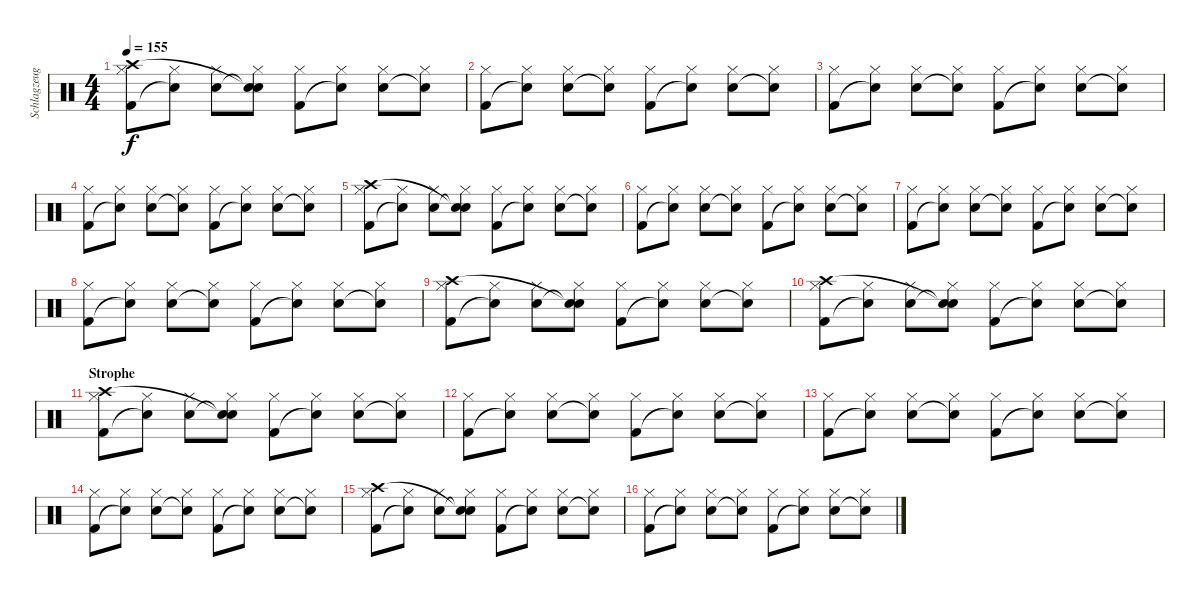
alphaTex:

\track ("Schlagzeug" "Schlagzeug") {instrument percussion}
\staff {score}
\articulation defaults
\ts (4 4)
\tempo 155
\clef neutral
\ks c
("Hi-Hat (closed)" "Kick (hit) 2" "Crash high (hit)").8{dy f} ("Hi-Hat (closed)" "Snare (hit) 2"{t}).8 ("Hi-Hat (closed)" "Snare (hit) 2").8 ("Hi-Hat (closed)" "Snare (hit)"{t} "Snare (hit)"{t}).8 ("Hi-Hat (closed)" "Kick (hit) 2").8 ("Hi-Hat (closed)" "Snare (hit)"{t}).8 ("Hi-Hat (closed)" "Snare (hit) 2").8 ("Hi-Hat (closed)" "Snare (hit)"{t}).8 |
("Hi-Hat (closed)" "Kick (hit) 2").8 ("Hi-Hat (closed)" "Snare (hit) 2"{t}).8 ("Hi-Hat (closed)" "Snare (hit) 2").8 ("Hi-Hat (closed)" "Snare (hit)"{t}).8 ("Hi-Hat (closed)" "Kick (hit) 2").8 ("Hi-Hat (closed)" "Snare (hit)"{t}).8 ("Hi-Hat (closed)" "Snare (hit) 2").8 ("Hi-Hat (closed)" "Snare (hit)"{t}).8 |
("Hi-Hat (closed)" "Kick (hit) 2").8 ("Hi-Hat (closed)" "Snare (hit) 2"{t}).8 ("Hi-Hat (closed)" "Snare (hit) 2").8 ("Hi-Hat (closed)" "Snare (hit)"{t}).8 ("Hi-Hat (closed)" "Kick (hit) 2").8 ("Hi-Hat (closed)" "Snare (hit)"{t}).8 ("Hi-Hat (closed)" "Snare (hit) 2").8 ("Hi-Hat (closed)" "Snare (hit)"{t}).8 |
("Hi-Hat (closed)" "Kick (hit) 2").8 ("Hi-Hat (closed)" "Snare (hit) 2"{t}).8 ("Hi-Hat (closed)" "Snare (hit) 2").8 ("Hi-Hat (closed)" "Snare (hit)"{t}).8 ("Hi-Hat (closed)" "Kick (hit) 2").8 ("Hi-Hat (closed)" "Snare (hit)"{t}).8 ("Hi-Hat (closed)" "Snare (hit) 2").8 ("Hi-Hat (closed)" "Snare (hit)"{t}).8 |
("Hi-Hat (closed)" "Kick (hit) 2" "Crash high (hit)").8 ("Hi-Hat (closed)" "Snare (hit) 2"{t}).8 ("Hi-Hat (closed)" "Snare (hit) 2").8 ("Hi-Hat (closed)" "Snare (hit)"{t} "Snare (hit)"{t}).8 ("Hi-Hat (closed)" "Kick (hit) 2").8 ("Hi-Hat (closed)" "Snare (hit)"{t}).8 ("Hi-Hat (closed)" "Snare (hit) 2").8 ("Hi-Hat (closed)" "Snare (hit)"{t}).8 |
("Hi-Hat (closed)" "Kick (hit) 2").8 ("Hi-Hat (closed)" "Snare (hit) 2"{t}).8 ("Hi-Hat (closed)" "Snare (hit) 2").8 ("Hi-Hat (closed)" "Snare (hit)"{t}).8 ("Hi-Hat (closed)" "Kick (hit) 2").8 ("Hi-Hat (closed)" "Snare (hit)"{t}).8 ("Hi-Hat (closed)" "Snare (hit) 2").8 ("Hi-Hat (closed)" "Snare (hit)"{t}).8 |
("Hi-Hat (closed)" "Kick (hit) 2").8 ("Hi-Hat (closed)" "Snare (hit) 2"{t}).8 ("Hi-Hat (closed)" "Snare (hit) 2").8 ("Hi-Hat (closed)" "Snare (hit)"{t}).8 ("Hi-Hat (closed)" "Kick (hit) 2").8 ("Hi-Hat (closed)" "Snare (hit)"{t}).8 ("Hi-Hat (closed)" "Snare (hit) 2").8 ("Hi-Hat (closed)" "Snare (hit)"{t}).8 |
("Hi-Hat (closed)" "Kick (hit) 2").8 ("Hi-Hat (closed)" "Snare (hit) 2"{t}).8 ("Hi-Hat (closed)" "Snare (hit) 2").8 ("Hi-Hat (closed)" "Snare (hit)"{t}).8 ("Hi-Hat (closed)" "Kick (hit) 2").8 ("Hi-Hat (closed)" "Snare (hit)"{t}).8 ("Hi-Hat (closed)" "Snare (hit) 2").8 ("Hi-Hat (closed)" "Snare (hit)"{t}).8 |
("Hi-Hat (closed)" "Kick (hit) 2" "Crash high (hit)").8 ("Hi-Hat (closed)" "Snare (hit) 2"{t}).8 ("Hi-Hat (closed)" "Snare (hit) 2").8 ("Hi-Hat (closed)" "Snare (hit)"{t} "Snare (hit)"{t}).8 ("Hi-Hat (closed)" "Kick (hit) 2").8 ("Hi-Hat (closed)" "Snare (hit)"{t}).8 ("Hi-Hat (closed)" "Snare (hit) 2").8 ("Hi-Hat (closed)" "Snare (hit)"{t}).8 |
("Hi-Hat (closed)" "Kick (hit) 2" "Crash high (hit)").8 ("Hi-Hat (closed)" "Snare (hit) 2"{t}).8 ("Hi-Hat (closed)" "Snare (hit) 2").8 ("Hi-Hat (closed)" "Snare (hit)"{t} "Snare (hit)"{t}).8 ("Hi-Hat (closed)" "Kick (hit) 2").8 ("Hi-Hat (closed)" "Snare (hit)"{t}).8 ("Hi-Hat (closed)" "Snare (hit) 2").8 ("Hi-Hat (closed)" "Snare (hit)"{t}).8 |
\section ("" "Strophe")
("Hi-Hat (closed)" "Kick (hit) 2" "Crash high (hit)").8 ("Hi-Hat (closed)" "Snare (hit) 2"{t}).8 ("Hi-Hat (closed)" "Snare (hit) 2").8 ("Hi-Hat (closed)" "Snare (hit)"{t} "Snare (hit)"{t}).8 ("Hi-Hat (closed)" "Kick (hit) 2").8 ("Hi-Hat (closed)" "Snare (hit)"{t}).8 ("Hi-Hat (closed)" "Snare (hit) 2").8 ("Hi-Hat (closed)" "Snare (hit)"{t}).8 |
("Hi-Hat (closed)" "Kick (hit) 2").8 ("Hi-Hat (closed)" "Snare (hit) 2"{t}).8 ("Hi-Hat (closed)" "Snare (hit) 2").8 ("Hi-Hat (closed)" "Snare (hit)"{t}).8 ("Hi-Hat (closed)" "Kick (hit) 2").8 ("Hi-Hat (closed)" "Snare (hit)"{t}).8 ("Hi-Hat (closed)" "Snare (hit) 2").8 ("Hi-Hat (closed)" "Snare (hit)"{t}).8 |
("Hi-Hat (closed)" "Kick (hit) 2").8 ("Hi-Hat (closed)" "Snare (hit) 2"{t}).8 ("Hi-Hat (closed)" "Snare (hit) 2").8 ("Hi-Hat (closed)" "Snare (hit)"{t}).8 ("Hi-Hat (closed)" "Kick (hit) 2").8 ("Hi-Hat (closed)" "Snare (hit)"{t}).8 ("Hi-Hat (closed)" "Snare (hit) 2").8 ("Hi-Hat (closed)" "Snare (hit)"{t}).8 |
("Hi-Hat (closed)" "Kick (hit) 2").8 ("Hi-Hat (closed)" "Snare (hit) 2"{t}).8 ("Hi-Hat (closed)" "Snare (hit) 2").8 ("Hi-Hat (closed)" "Snare (hit)"{t}).8 ("Hi-Hat (closed)" "Kick (hit) 2").8 ("Hi-Hat (closed)" "Snare (hit)"{t}).8 ("Hi-Hat (closed)" "Snare (hit) 2").8 ("Hi-Hat (closed)" "Snare (hit)"{t}).8 |
("Hi-Hat (closed)" "Kick (hit) 2" "Crash high (hit)").8 ("Hi-Hat (closed)" "Snare (hit) 2"{t}).8 ("Hi-Hat (closed)" "Snare (hit) 2").8 ("Hi-Hat (closed)" "Snare (hit)"{t} "Snare (hit)"{t}).8 ("Hi-Hat (closed)" "Kick (hit) 2").8 ("Hi-Hat (closed)" "Snare (hit)"{t}).8 ("Hi-Hat (closed)" "Snare (hit) 2").8 ("Hi-Hat (closed)" "Snare (hit)"{t}).8 |
("Hi-Hat (closed)" "Kick (hit) 2").8 ("Hi-Hat (closed)" "Snare (hit) 2"{t}).8 ("Hi-Hat (closed)" "Snare (hit) 2").8 ("Hi-Hat (closed)" "Snare (hit)"{t}).8 ("Hi-Hat (closed)" "Kick (hit) 2").8 ("Hi-Hat (closed)" "Snare (hit)"{t}).8 ("Hi-Hat (closed)" "Snare (hit) 2").8 ("Hi-Hat (closed)" "Snare (hit)"{t}).8
